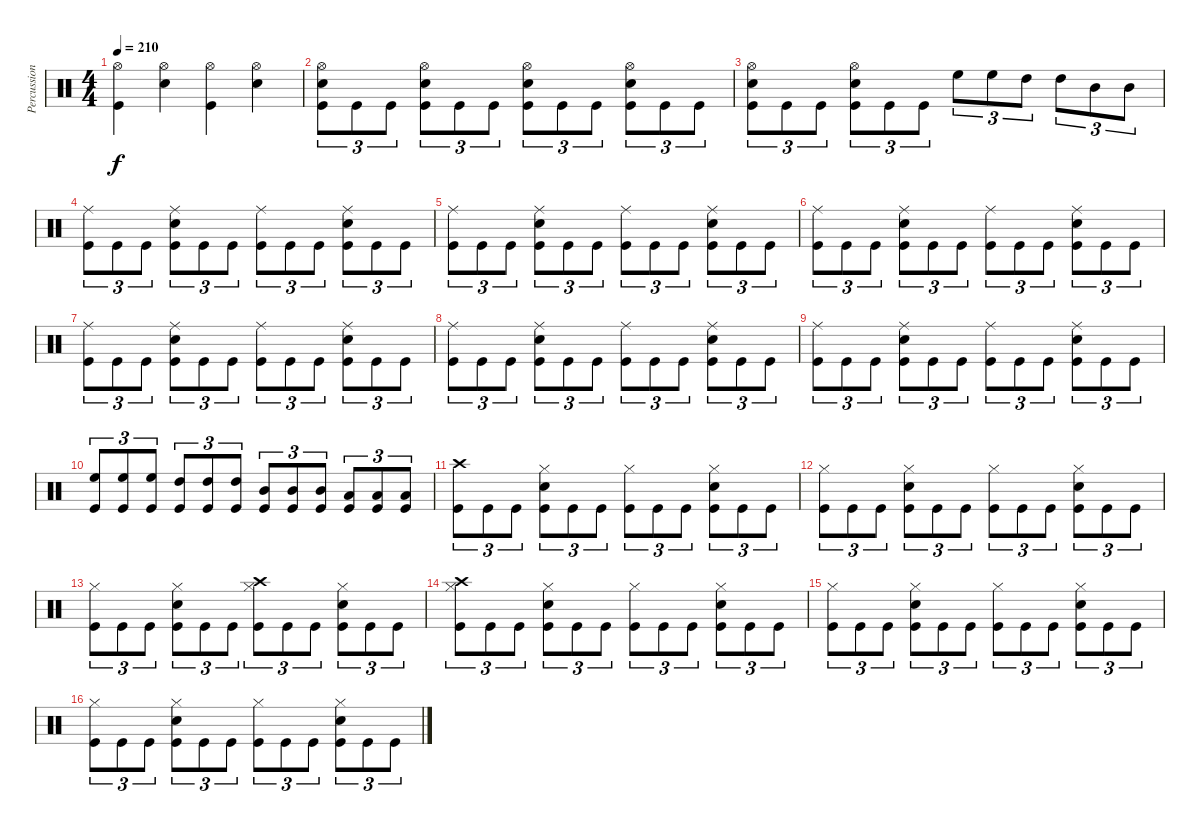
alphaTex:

\track ("Percussion" "Percussion") {instrument percussion}
\staff {score}
\articulation defaults
\ts (4 4)
\tempo 210
\clef neutral
\ks c
("Hi-Hat (open)" "Kick (hit)").4{dy f} ("Snare (hit) 2" "Hi-Hat (open)").4 ("Hi-Hat (open)" "Kick (hit)").4 ("Snare (hit) 2" "Hi-Hat (open)").4 |
("Snare (hit) 2" "Hi-Hat (open)" "Kick (hit)").8{tu (3 2)} "Kick (hit)".8{tu (3 2)} "Kick (hit)".8{tu (3 2)} ("Snare (hit) 2" "Hi-Hat (open)" "Kick (hit)").8{tu (3 2)} "Kick (hit)".8{tu (3 2)} "Kick (hit)".8{tu (3 2)} ("Snare (hit) 2" "Hi-Hat (open)" "Kick (hit)").8{tu (3 2)} "Kick (hit)".8{tu (3 2)} "Kick (hit)".8{tu (3 2)} ("Snare (hit) 2" "Hi-Hat (open)" "Kick (hit)").8{tu (3 2)} "Kick (hit)".8{tu (3 2)} "Kick (hit)".8{tu (3 2)} |
("Snare (hit) 2" "Hi-Hat (open)" "Kick (hit)").8{tu (3 2)} "Kick (hit)".8{tu (3 2)} "Kick (hit)".8{tu (3 2)} ("Snare (hit) 2" "Hi-Hat (open)" "Kick (hit)").8{tu (3 2)} "Kick (hit)".8{tu (3 2)} "Kick (hit)".8{tu (3 2)} "High Floor Tom (hit)".8{tu (3 2)} "High Floor Tom (hit)".8{tu (3 2)} "High Tom (hit)".8{tu (3 2)} "High Tom (hit)".8{tu (3 2)} "Mid Tom (hit)".8{tu (3 2)} "Mid Tom (hit)".8{tu (3 2)} |
("Ride (middle)" "Kick (hit)").8{tu (3 2)} "Kick (hit)".8{tu (3 2)} "Kick (hit)".8{tu (3 2)} ("Snare (hit) 2" "Ride (middle)" "Kick (hit)").8{tu (3 2)} "Kick (hit)".8{tu (3 2)} "Kick (hit)".8{tu (3 2)} ("Ride (middle)" "Kick (hit)").8{tu (3 2)} "Kick (hit)".8{tu (3 2)} "Kick (hit)".8{tu (3 2)} ("Snare (hit) 2" "Ride (middle)" "Kick (hit)").8{tu (3 2)} "Kick (hit)".8{tu (3 2)} "Kick (hit)".8{tu (3 2)} |
("Ride (middle)" "Kick (hit)").8{tu (3 2)} "Kick (hit)".8{tu (3 2)} "Kick (hit)".8{tu (3 2)} ("Snare (hit) 2" "Ride (middle)" "Kick (hit)").8{tu (3 2)} "Kick (hit)".8{tu (3 2)} "Kick (hit)".8{tu (3 2)} ("Ride (middle)" "Kick (hit)").8{tu (3 2)} "Kick (hit)".8{tu (3 2)} "Kick (hit)".8{tu (3 2)} ("Snare (hit) 2" "Ride (middle)" "Kick (hit)").8{tu (3 2)} "Kick (hit)".8{tu (3 2)} "Kick (hit)".8{tu (3 2)} |
("Ride (middle)" "Kick (hit)").8{tu (3 2)} "Kick (hit)".8{tu (3 2)} "Kick (hit)".8{tu (3 2)} ("Snare (hit) 2" "Ride (middle)" "Kick (hit)").8{tu (3 2)} "Kick (hit)".8{tu (3 2)} "Kick (hit)".8{tu (3 2)} ("Ride (middle)" "Kick (hit)").8{tu (3 2)} "Kick (hit)".8{tu (3 2)} "Kick (hit)".8{tu (3 2)} ("Snare (hit) 2" "Ride (middle)" "Kick (hit)").8{tu (3 2)} "Kick (hit)".8{tu (3 2)} "Kick (hit)".8{tu (3 2)} |
("Ride (middle)" "Kick (hit)").8{tu (3 2)} "Kick (hit)".8{tu (3 2)} "Kick (hit)".8{tu (3 2)} ("Snare (hit) 2" "Ride (middle)" "Kick (hit)").8{tu (3 2)} "Kick (hit)".8{tu (3 2)} "Kick (hit)".8{tu (3 2)} ("Ride (middle)" "Kick (hit)").8{tu (3 2)} "Kick (hit)".8{tu (3 2)} "Kick (hit)".8{tu (3 2)} ("Snare (hit) 2" "Ride (middle)" "Kick (hit)").8{tu (3 2)} "Kick (hit)".8{tu (3 2)} "Kick (hit)".8{tu (3 2)} |
("Ride (middle)" "Kick (hit)").8{tu (3 2)} "Kick (hit)".8{tu (3 2)} "Kick (hit)".8{tu (3 2)} ("Snare (hit) 2" "Ride (middle)" "Kick (hit)").8{tu (3 2)} "Kick (hit)".8{tu (3 2)} "Kick (hit)".8{tu (3 2)} ("Ride (middle)" "Kick (hit)").8{tu (3 2)} "Kick (hit)".8{tu (3 2)} "Kick (hit)".8{tu (3 2)} ("Snare (hit) 2" "Ride (middle)" "Kick (hit)").8{tu (3 2)} "Kick (hit)".8{tu (3 2)} "Kick (hit)".8{tu (3 2)} |
("Ride (middle)" "Kick (hit)").8{tu (3 2)} "Kick (hit)".8{tu (3 2)} "Kick (hit)".8{tu (3 2)} ("Snare (hit) 2" "Ride (middle)" "Kick (hit)").8{tu (3 2)} "Kick (hit)".8{tu (3 2)} "Kick (hit)".8{tu (3 2)} ("Ride (middle)" "Kick (hit)").8{tu (3 2)} "Kick (hit)".8{tu (3 2)} "Kick (hit)".8{tu (3 2)} ("Snare (hit) 2" "Ride (middle)" "Kick (hit)").8{tu (3 2)} "Kick (hit)".8{tu (3 2)} "Kick (hit)".8{tu (3 2)} |
("High Floor Tom (hit)" "Kick (hit)").8{tu (3 2)} ("High Floor Tom (hit)" "Kick (hit)").8{tu (3 2)} ("High Floor Tom (hit)" "Kick (hit)").8{tu (3 2)} ("High Tom (hit)" "Kick (hit)").8{tu (3 2)} ("High Tom (hit)" "Kick (hit)").8{tu (3 2)} ("High Tom (hit)" "Kick (hit)").8{tu (3 2)} ("Mid Tom (hit)" "Kick (hit)").8{tu (3 2)} ("Mid Tom (hit)" "Kick (hit)").8{tu (3 2)} ("Mid Tom (hit)" "Kick (hit)").8{tu (3 2)} ("Low Tom (hit)" "Kick (hit)").8{tu (3 2)} ("Low Tom (hit)" "Kick (hit)").8{tu (3 2)} ("Low Tom (hit)" "Kick (hit)").8{tu (3 2)} |
("Crash high (hit)" "Kick (hit)").8{tu (3 2)} "Kick (hit)".8{tu (3 2)} "Kick (hit)".8{tu (3 2)} ("Snare (hit) 2" "Hi-Hat (closed)" "Kick (hit)").8{tu (3 2)} "Kick (hit)".8{tu (3 2)} "Kick (hit)".8{tu (3 2)} ("Hi-Hat (closed)" "Kick (hit)").8{tu (3 2)} "Kick (hit)".8{tu (3 2)} "Kick (hit)".8{tu (3 2)} ("Snare (hit) 2" "Hi-Hat (closed)" "Kick (hit)").8{tu (3 2)} "Kick (hit)".8{tu (3 2)} "Kick (hit)".8{tu (3 2)} |
("Hi-Hat (closed)" "Kick (hit)").8{tu (3 2)} "Kick (hit)".8{tu (3 2)} "Kick (hit)".8{tu (3 2)} ("Snare (hit) 2" "Hi-Hat (closed)" "Kick (hit)").8{tu (3 2)} "Kick (hit)".8{tu (3 2)} "Kick (hit)".8{tu (3 2)} ("Hi-Hat (closed)" "Kick (hit)").8{tu (3 2)} "Kick (hit)".8{tu (3 2)} "Kick (hit)".8{tu (3 2)} ("Snare (hit) 2" "Hi-Hat (closed)" "Kick (hit)").8{tu (3 2)} "Kick (hit)".8{tu (3 2)} "Kick (hit)".8{tu (3 2)} |
("Hi-Hat (closed)" "Kick (hit)").8{tu (3 2)} "Kick (hit)".8{tu (3 2)} "Kick (hit)".8{tu (3 2)} ("Snare (hit) 2" "Hi-Hat (closed)" "Kick (hit)").8{tu (3 2)} "Kick (hit)".8{tu (3 2)} "Kick (hit)".8{tu (3 2)} ("Crash high (hit)" "Hi-Hat (closed)" "Kick (hit)").8{tu (3 2)} "Kick (hit)".8{tu (3 2)} "Kick (hit)".8{tu (3 2)} ("Snare (hit) 2" "Hi-Hat (closed)" "Kick (hit)").8{tu (3 2)} "Kick (hit)".8{tu (3 2)} "Kick (hit)".8{tu (3 2)} |
("Crash high (hit)" "Hi-Hat (closed)" "Kick (hit)").8{tu (3 2)} "Kick (hit)".8{tu (3 2)} "Kick (hit)".8{tu (3 2)} ("Snare (hit) 2" "Hi-Hat (closed)" "Kick (hit)").8{tu (3 2)} "Kick (hit)".8{tu (3 2)} "Kick (hit)".8{tu (3 2)} ("Hi-Hat (closed)" "Kick (hit)").8{tu (3 2)} "Kick (hit)".8{tu (3 2)} "Kick (hit)".8{tu (3 2)} ("Snare (hit) 2" "Hi-Hat (closed)" "Kick (hit)").8{tu (3 2)} "Kick (hit)".8{tu (3 2)} "Kick (hit)".8{tu (3 2)} |
("Hi-Hat (closed)" "Kick (hit)").8{tu (3 2)} "Kick (hit)".8{tu (3 2)} "Kick (hit)".8{tu (3 2)} ("Snare (hit) 2" "Hi-Hat (closed)" "Kick (hit)").8{tu (3 2)} "Kick (hit)".8{tu (3 2)} "Kick (hit)".8{tu (3 2)} ("Hi-Hat (closed)" "Kick (hit)").8{tu (3 2)} "Kick (hit)".8{tu (3 2)} "Kick (hit)".8{tu (3 2)} ("Snare (hit) 2" "Hi-Hat (closed)" "Kick (hit)").8{tu (3 2)} "Kick (hit)".8{tu (3 2)} "Kick (hit)".8{tu (3 2)} |
("Hi-Hat (closed)" "Kick (hit)").8{tu (3 2)} "Kick (hit)".8{tu (3 2)} "Kick (hit)".8{tu (3 2)} ("Snare (hit) 2" "Hi-Hat (closed)" "Kick (hit)").8{tu (3 2)} "Kick (hit)".8{tu (3 2)} "Kick (hit)".8{tu (3 2)} ("Hi-Hat (closed)" "Kick (hit)").8{tu (3 2)} "Kick (hit)".8{tu (3 2)} "Kick (hit)".8{tu (3 2)} ("Snare (hit) 2" "Hi-Hat (closed)" "Kick (hit)").8{tu (3 2)} "Kick (hit)".8{tu (3 2)} "Kick (hit)".8{tu (3 2)}
